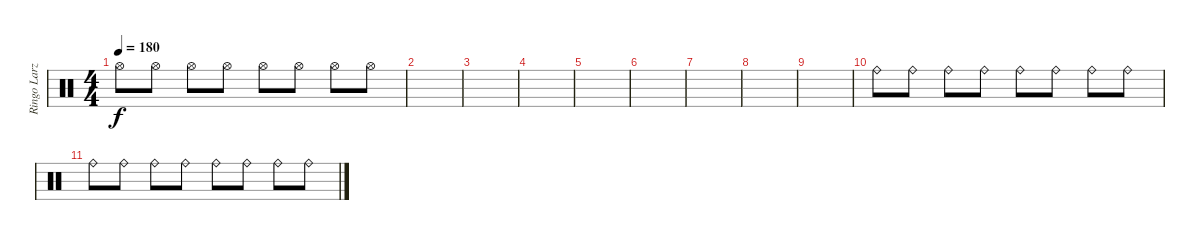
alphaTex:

\track ("Ringo Larz" "Ringo Larz") {instrument percussion}
\staff {score}
\articulation defaults
\ts (4 4)
\tempo 180
\clef neutral
\ks c "Hi-Hat (open)".8{dy f} "Hi-Hat (open)".8 "Hi-Hat (open)".8 "Hi-Hat (open)".8 "Hi-Hat (open)".8 "Hi-Hat (open)".8 "Hi-Hat (open)".8 "Hi-Hat (open)".8
|
|
|
|
|
|
|
|
|
"Ride (bell)".8 "Ride (bell)".8 "Ride (bell)".8 "Ride (bell)".8 "Ride (bell)".8 "Ride (bell)".8 "Ride (bell)".8 "Ride (bell)".8 |
"Ride (bell)".8 "Ride (bell)".8 "Ride (bell)".8 "Ride (bell)".8 "Ride (bell)".8 "Ride (bell)".8 "Ride (bell)".8 "Ride (bell)".8
